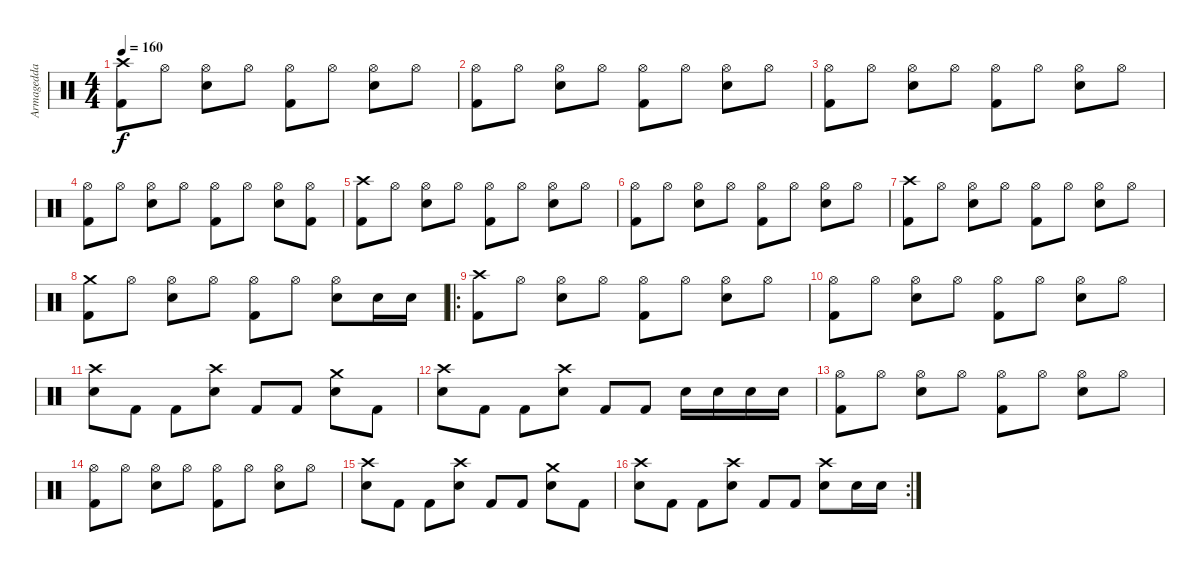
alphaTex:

\track ("Armagedda" "Armagedda") {instrument percussion}
\staff {score}
\articulation defaults
\ts (4 4)
\tempo 160
\clef neutral
\ks c
("Crash high (hit)" "Kick (hit) 2").8{dy f} "Hi-Hat (open)".8 ("Hi-Hat (open)" "Snare (hit) 2").8 "Hi-Hat (open)".8 ("Hi-Hat (open)" "Kick (hit) 2").8 "Hi-Hat (open)".8 ("Hi-Hat (open)" "Snare (hit) 2").8 "Hi-Hat (open)".8 |
("Hi-Hat (open)" "Kick (hit) 2").8 "Hi-Hat (open)".8 ("Hi-Hat (open)" "Snare (hit) 2").8 "Hi-Hat (open)".8 ("Hi-Hat (open)" "Kick (hit) 2").8 "Hi-Hat (open)".8 ("Hi-Hat (open)" "Snare (hit) 2").8 "Hi-Hat (open)".8 |
("Hi-Hat (open)" "Kick (hit) 2").8 "Hi-Hat (open)".8 ("Hi-Hat (open)" "Snare (hit) 2").8 "Hi-Hat (open)".8 ("Hi-Hat (open)" "Kick (hit) 2").8 "Hi-Hat (open)".8 ("Hi-Hat (open)" "Snare (hit) 2").8 "Hi-Hat (open)".8 |
("Hi-Hat (open)" "Kick (hit) 2").8 "Hi-Hat (open)".8 ("Hi-Hat (open)" "Snare (hit) 2").8 "Hi-Hat (open)".8 ("Hi-Hat (open)" "Kick (hit) 2").8 "Hi-Hat (open)".8 ("Hi-Hat (open)" "Snare (hit) 2").8 ("Hi-Hat (open)" "Kick (hit) 2").8 |
("Crash high (hit)" "Kick (hit) 2").8 "Hi-Hat (open)".8 ("Hi-Hat (open)" "Snare (hit) 2").8 "Hi-Hat (open)".8 ("Hi-Hat (open)" "Kick (hit) 2").8 "Hi-Hat (open)".8 ("Hi-Hat (open)" "Snare (hit) 2").8 "Hi-Hat (open)".8 |
("Hi-Hat (open)" "Kick (hit) 2").8 "Hi-Hat (open)".8 ("Hi-Hat (open)" "Snare (hit) 2").8 "Hi-Hat (open)".8 ("Hi-Hat (open)" "Kick (hit) 2").8 "Hi-Hat (open)".8 ("Hi-Hat (open)" "Snare (hit) 2").8 "Hi-Hat (open)".8 |
("Crash high (hit)" "Kick (hit) 2").8 "Hi-Hat (open)".8 ("Hi-Hat (open)" "Snare (hit) 2").8 "Hi-Hat (open)".8 ("Hi-Hat (open)" "Kick (hit) 2").8 "Hi-Hat (open)".8 ("Hi-Hat (open)" "Snare (hit) 2").8 "Hi-Hat (open)".8 |
("Crash medium (hit)" "Kick (hit) 2").8 "Hi-Hat (open)".8 ("Hi-Hat (open)" "Snare (hit) 2").8 "Hi-Hat (open)".8 ("Hi-Hat (open)" "Kick (hit) 2").8 "Hi-Hat (open)".8 ("Hi-Hat (open)" "Snare (hit) 2").8 "Snare (hit) 2".16 "Snare (hit) 2".16 |
\ro
("Crash high (hit)" "Kick (hit) 2").8 "Hi-Hat (open)".8 ("Hi-Hat (open)" "Snare (hit) 2").8 "Hi-Hat (open)".8 ("Hi-Hat (open)" "Kick (hit) 2").8 "Hi-Hat (open)".8 ("Hi-Hat (open)" "Snare (hit) 2").8 "Hi-Hat (open)".8 |
("Hi-Hat (open)" "Kick (hit) 2").8 "Hi-Hat (open)".8 ("Hi-Hat (open)" "Snare (hit) 2").8 "Hi-Hat (open)".8 ("Hi-Hat (open)" "Kick (hit) 2").8 "Hi-Hat (open)".8 ("Hi-Hat (open)" "Snare (hit) 2").8 "Hi-Hat (open)".8 |
("Crash high (hit)" "Snare (hit) 2").8 "Kick (hit) 2".8 "Kick (hit) 2".8 ("Crash high (hit)" "Snare (hit) 2").8 "Kick (hit) 2".8 "Kick (hit) 2".8 ("Crash medium (hit)" "Snare (hit) 2").8 "Kick (hit) 2".8 |
("Crash high (hit)" "Snare (hit) 2").8 "Kick (hit) 2".8 "Kick (hit) 2".8 ("Crash high (hit)" "Snare (hit) 2").8 "Kick (hit) 2".8 "Kick (hit) 2".8 "Snare (hit) 2".16 "Snare (hit) 2".16 "Snare (hit) 2".16 "Snare (hit) 2".16 |
("Hi-Hat (open)" "Kick (hit) 2").8 "Hi-Hat (open)".8 ("Hi-Hat (open)" "Snare (hit) 2").8 "Hi-Hat (open)".8 ("Hi-Hat (open)" "Kick (hit) 2").8 "Hi-Hat (open)".8 ("Hi-Hat (open)" "Snare (hit) 2").8 "Hi-Hat (open)".8 |
("Hi-Hat (open)" "Kick (hit) 2").8 "Hi-Hat (open)".8 ("Hi-Hat (open)" "Snare (hit) 2").8 "Hi-Hat (open)".8 ("Hi-Hat (open)" "Kick (hit) 2").8 "Hi-Hat (open)".8 ("Hi-Hat (open)" "Snare (hit) 2").8 "Hi-Hat (open)".8 |
("Crash high (hit)" "Snare (hit) 2").8 "Kick (hit) 2".8 "Kick (hit) 2".8 ("Crash high (hit)" "Snare (hit) 2").8 "Kick (hit) 2".8 "Kick (hit) 2".8 ("Crash medium (hit)" "Snare (hit) 2").8 "Kick (hit) 2".8 |
\rc 2
("Crash high (hit)" "Snare (hit) 2").8 "Kick (hit) 2".8 "Kick (hit) 2".8 ("Crash high (hit)" "Snare (hit) 2").8 "Kick (hit) 2".8 "Kick (hit) 2".8 ("Crash high (hit)" "Snare (hit) 2").8 "Snare (hit) 2".16 "Snare (hit) 2".16
